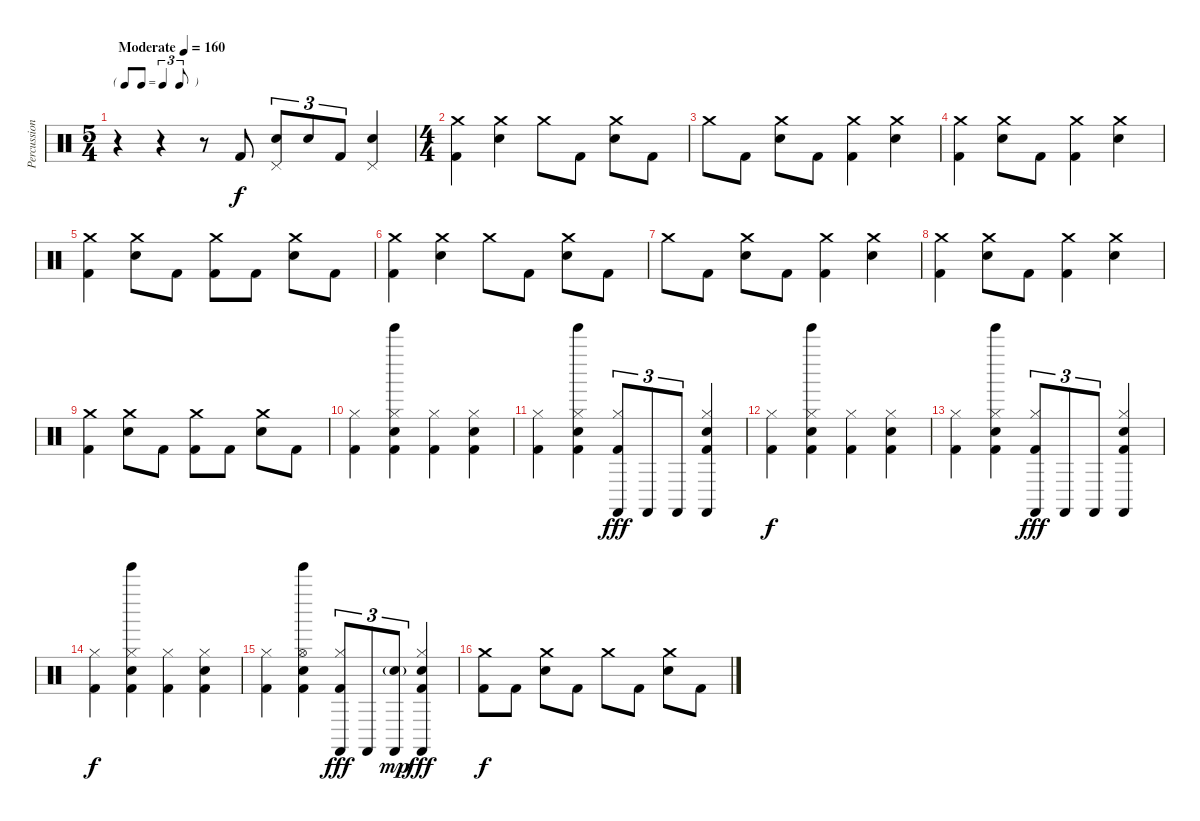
\track ("Percussion" "Percussion") {instrument percussion}
\staff {score}
\articulation defaults
\ts (5 4)
\tf triplet8th
\tempo (160 "Moderate")
\clef neutral
\ks c
r.4{dy f} r.4 r.8 "Kick (hit) 2".8 ("Electric Snare (hit)" "Pedal Hi-Hat (hit)").8{tu (3 2)} "Electric Snare (hit)".8{tu (3 2)} "Kick (hit) 2".8{tu (3 2)} ("Electric Snare (hit)" "Pedal Hi-Hat (hit)").4 |
\ts (4 4)
("Crash medium (hit)" "Kick (hit) 2").4 ("Crash medium (hit)" "Electric Snare (hit)").4 "Crash medium (hit)".8 "Kick (hit) 2".8 ("Crash medium (hit)" "Electric Snare (hit)").8 "Kick (hit) 2".8 |
"Crash medium (hit)".8 "Kick (hit) 2".8 ("Crash medium (hit)" "Electric Snare (hit)").8 "Kick (hit) 2".8 ("Crash medium (hit)" "Kick (hit) 2").4 ("Crash medium (hit)" "Electric Snare (hit)").4 |
("Crash medium (hit)" "Kick (hit) 2").4 ("Crash medium (hit)" "Electric Snare (hit)").8 "Kick (hit) 2".8 ("Crash medium (hit)" "Kick (hit) 2").4 ("Crash medium (hit)" "Electric Snare (hit)").4 |
("Crash medium (hit)" "Kick (hit) 2").4 ("Crash medium (hit)" "Electric Snare (hit)").8 "Kick (hit) 2".8 ("Crash medium (hit)" "Kick (hit) 2").8 "Kick (hit) 2".8 ("Crash medium (hit)" "Electric Snare (hit)").8 "Kick (hit) 2".8 |
("Crash medium (hit)" "Kick (hit) 2").4 ("Crash medium (hit)" "Electric Snare (hit)").4 "Crash medium (hit)".8 "Kick (hit) 2".8 ("Crash medium (hit)" "Electric Snare (hit)").8 "Kick (hit) 2".8 |
"Crash medium (hit)".8 "Kick (hit) 2".8 ("Crash medium (hit)" "Electric Snare (hit)").8 "Kick (hit) 2".8 ("Crash medium (hit)" "Kick (hit) 2").4 ("Crash medium (hit)" "Electric Snare (hit)").4 |
("Crash medium (hit)" "Kick (hit) 2").4 ("Crash medium (hit)" "Electric Snare (hit)").8 "Kick (hit) 2".8 ("Crash medium (hit)" "Kick (hit) 2").4 ("Crash medium (hit)" "Electric Snare (hit)").4 |
("Crash medium (hit)" "Kick (hit) 2").4 ("Crash medium (hit)" "Electric Snare (hit)").8 "Kick (hit) 2".8 ("Crash medium (hit)" "Kick (hit) 2").8 "Kick (hit) 2".8 ("Crash medium (hit)" "Electric Snare (hit)").8 "Kick (hit) 2".8 |
("Hi-Hat (closed)" "Kick (hit) 2").4 ("Tinkle Bell (hit)" "Hi-Hat (closed)" "Electric Snare (hit)" "Kick (hit) 2").4 ("Hi-Hat (closed)" "Kick (hit) 2").4 ("Hi-Hat (closed)" "Electric Snare (hit)" "Kick (hit) 2").4 |
("Hi-Hat (closed)" "Kick (hit) 2").4 ("Tinkle Bell (hit)" "Hi-Hat (closed)" "Electric Snare (hit)" "Kick (hit) 2").4 ("Hi-Hat (closed)" "Castanets (hit)" "Kick (hit) 2").8{tu (3 2) dy fff} "Castanets (hit)".8{tu (3 2)} "Castanets (hit)".8{tu (3 2)} ("Hi-Hat (closed)" "Castanets (hit)" "Electric Snare (hit)" "Kick (hit) 2").4 |
("Hi-Hat (closed)" "Kick (hit) 2").4{dy f} ("Tinkle Bell (hit)" "Hi-Hat (closed)" "Electric Snare (hit)" "Kick (hit) 2").4 ("Hi-Hat (closed)" "Kick (hit) 2").4 ("Hi-Hat (closed)" "Electric Snare (hit)" "Kick (hit) 2").4 |
("Hi-Hat (closed)" "Kick (hit) 2").4 ("Tinkle Bell (hit)" "Hi-Hat (closed)" "Electric Snare (hit)" "Kick (hit) 2").4 ("Hi-Hat (closed)" "Castanets (hit)" "Kick (hit) 2").8{tu (3 2) dy fff} "Castanets (hit)".8{tu (3 2)} "Castanets (hit)".8{tu (3 2)} ("Hi-Hat (closed)" "Castanets (hit)" "Electric Snare (hit)" "Kick (hit) 2").4 |
("Hi-Hat (closed)" "Kick (hit) 2").4{dy f} ("Tinkle Bell (hit)" "Hi-Hat (closed)" "Electric Snare (hit)" "Kick (hit) 2").4 ("Hi-Hat (closed)" "Kick (hit) 2").4 ("Hi-Hat (closed)" "Electric Snare (hit)" "Kick (hit) 2").4 |
("Hi-Hat (closed)" "Kick (hit) 2").4 ("Tinkle Bell (hit)" "Hi-Hat (open)" "Electric Snare (hit)" "Kick (hit) 2").4 ("Hi-Hat (closed)" "Castanets (hit)" "Kick (hit) 2").8{tu (3 2) dy fff} "Castanets (hit)".8{tu (3 2)} ("Castanets (hit)" "Electric Snare (hit)"{g}).8{tu (3 2) dy mp} ("Hi-Hat (closed)" "Castanets (hit)" "Electric Snare (hit)" "Kick (hit) 2").4{dy fff} |
("Crash medium (hit)" "Kick (hit) 2").8{dy f} "Kick (hit) 2".8 ("Crash medium (hit)" "Electric Snare (hit)").8 "Kick (hit) 2".8 "Crash medium (hit)".8 "Kick (hit) 2".8 ("Crash medium (hit)" "Electric Snare (hit)").8 "Kick (hit) 2".8
